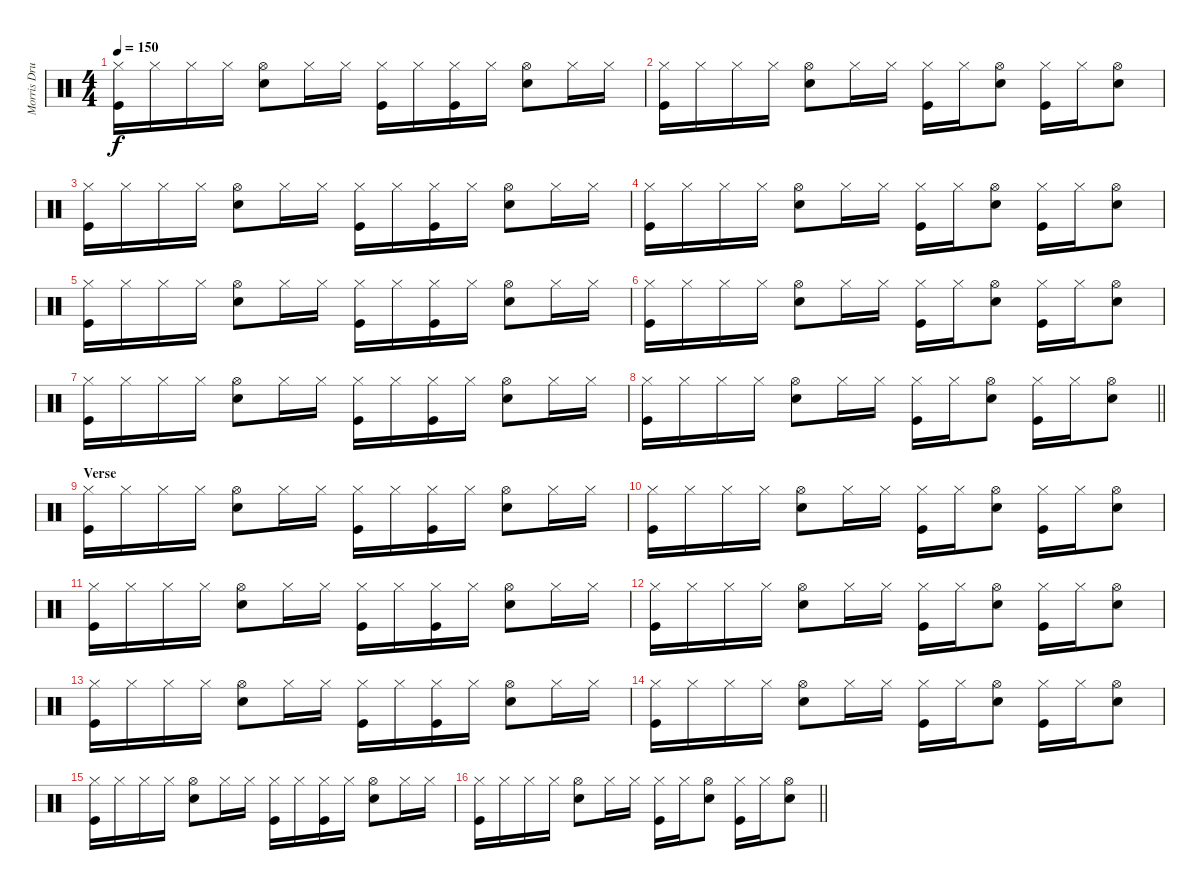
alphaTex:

\track ("Morris Drums" "Morris Dru") {instrument percussion}
\staff {score}
\articulation defaults
\ts (4 4)
\tempo 150
\clef neutral
\ks c
("Hi-Hat (closed)" "Kick (hit)").16{dy f} "Hi-Hat (closed)".16 "Hi-Hat (closed)".16 "Hi-Hat (closed)".16 ("Hi-Hat (open)" "Snare (hit) 2").8 "Hi-Hat (closed)".16 "Hi-Hat (closed)".16 ("Hi-Hat (closed)" "Kick (hit)").16 "Hi-Hat (closed)".16 ("Hi-Hat (closed)" "Kick (hit)").16 "Hi-Hat (closed)".16 ("Hi-Hat (open)" "Snare (hit) 2").8 "Hi-Hat (closed)".16 "Hi-Hat (closed)".16 |
("Hi-Hat (closed)" "Kick (hit)").16 "Hi-Hat (closed)".16 "Hi-Hat (closed)".16 "Hi-Hat (closed)".16 ("Hi-Hat (open)" "Snare (hit) 2").8 "Hi-Hat (closed)".16 "Hi-Hat (closed)".16 ("Hi-Hat (closed)" "Kick (hit)").16 "Hi-Hat (closed)".16 ("Hi-Hat (open)" "Snare (hit) 2").8 ("Hi-Hat (closed)" "Kick (hit)").16 "Hi-Hat (closed)".16 ("Hi-Hat (open)" "Snare (hit) 2").8 |
("Hi-Hat (closed)" "Kick (hit)").16 "Hi-Hat (closed)".16 "Hi-Hat (closed)".16 "Hi-Hat (closed)".16 ("Hi-Hat (open)" "Snare (hit) 2").8 "Hi-Hat (closed)".16 "Hi-Hat (closed)".16 ("Hi-Hat (closed)" "Kick (hit)").16 "Hi-Hat (closed)".16 ("Hi-Hat (closed)" "Kick (hit)").16 "Hi-Hat (closed)".16 ("Hi-Hat (open)" "Snare (hit) 2").8 "Hi-Hat (closed)".16 "Hi-Hat (closed)".16 |
("Hi-Hat (closed)" "Kick (hit)").16 "Hi-Hat (closed)".16 "Hi-Hat (closed)".16 "Hi-Hat (closed)".16 ("Hi-Hat (open)" "Snare (hit) 2").8 "Hi-Hat (closed)".16 "Hi-Hat (closed)".16 ("Hi-Hat (closed)" "Kick (hit)").16 "Hi-Hat (closed)".16 ("Hi-Hat (open)" "Snare (hit) 2").8 ("Hi-Hat (closed)" "Kick (hit)").16 "Hi-Hat (closed)".16 ("Hi-Hat (open)" "Snare (hit) 2").8 |
("Hi-Hat (closed)" "Kick (hit)").16 "Hi-Hat (closed)".16 "Hi-Hat (closed)".16 "Hi-Hat (closed)".16 ("Hi-Hat (open)" "Snare (hit) 2").8 "Hi-Hat (closed)".16 "Hi-Hat (closed)".16 ("Hi-Hat (closed)" "Kick (hit)").16 "Hi-Hat (closed)".16 ("Hi-Hat (closed)" "Kick (hit)").16 "Hi-Hat (closed)".16 ("Hi-Hat (open)" "Snare (hit) 2").8 "Hi-Hat (closed)".16 "Hi-Hat (closed)".16 |
("Hi-Hat (closed)" "Kick (hit)").16 "Hi-Hat (closed)".16 "Hi-Hat (closed)".16 "Hi-Hat (closed)".16 ("Hi-Hat (open)" "Snare (hit) 2").8 "Hi-Hat (closed)".16 "Hi-Hat (closed)".16 ("Hi-Hat (closed)" "Kick (hit)").16 "Hi-Hat (closed)".16 ("Hi-Hat (open)" "Snare (hit) 2").8 ("Hi-Hat (closed)" "Kick (hit)").16 "Hi-Hat (closed)".16 ("Hi-Hat (open)" "Snare (hit) 2").8 |
("Hi-Hat (closed)" "Kick (hit)").16 "Hi-Hat (closed)".16 "Hi-Hat (closed)".16 "Hi-Hat (closed)".16 ("Hi-Hat (open)" "Snare (hit) 2").8 "Hi-Hat (closed)".16 "Hi-Hat (closed)".16 ("Hi-Hat (closed)" "Kick (hit)").16 "Hi-Hat (closed)".16 ("Hi-Hat (closed)" "Kick (hit)").16 "Hi-Hat (closed)".16 ("Hi-Hat (open)" "Snare (hit) 2").8 "Hi-Hat (closed)".16 "Hi-Hat (closed)".16 |
\barLineRight lightlight
("Hi-Hat (closed)" "Kick (hit)").16 "Hi-Hat (closed)".16 "Hi-Hat (closed)".16 "Hi-Hat (closed)".16 ("Hi-Hat (open)" "Snare (hit) 2").8 "Hi-Hat (closed)".16 "Hi-Hat (closed)".16 ("Hi-Hat (closed)" "Kick (hit)").16 "Hi-Hat (closed)".16 ("Hi-Hat (open)" "Snare (hit) 2").8 ("Hi-Hat (closed)" "Kick (hit)").16 "Hi-Hat (closed)".16 ("Hi-Hat (open)" "Snare (hit) 2").8 |
\section ("" "Verse")
("Hi-Hat (closed)" "Kick (hit)").16 "Hi-Hat (closed)".16 "Hi-Hat (closed)".16 "Hi-Hat (closed)".16 ("Hi-Hat (open)" "Snare (hit) 2").8 "Hi-Hat (closed)".16 "Hi-Hat (closed)".16 ("Hi-Hat (closed)" "Kick (hit)").16 "Hi-Hat (closed)".16 ("Hi-Hat (closed)" "Kick (hit)").16 "Hi-Hat (closed)".16 ("Hi-Hat (open)" "Snare (hit) 2").8 "Hi-Hat (closed)".16 "Hi-Hat (closed)".16 |
("Hi-Hat (closed)" "Kick (hit)").16 "Hi-Hat (closed)".16 "Hi-Hat (closed)".16 "Hi-Hat (closed)".16 ("Hi-Hat (open)" "Snare (hit) 2").8 "Hi-Hat (closed)".16 "Hi-Hat (closed)".16 ("Hi-Hat (closed)" "Kick (hit)").16 "Hi-Hat (closed)".16 ("Hi-Hat (open)" "Snare (hit) 2").8 ("Hi-Hat (closed)" "Kick (hit)").16 "Hi-Hat (closed)".16 ("Hi-Hat (open)" "Snare (hit) 2").8 |
("Hi-Hat (closed)" "Kick (hit)").16 "Hi-Hat (closed)".16 "Hi-Hat (closed)".16 "Hi-Hat (closed)".16 ("Hi-Hat (open)" "Snare (hit) 2").8 "Hi-Hat (closed)".16 "Hi-Hat (closed)".16 ("Hi-Hat (closed)" "Kick (hit)").16 "Hi-Hat (closed)".16 ("Hi-Hat (closed)" "Kick (hit)").16 "Hi-Hat (closed)".16 ("Hi-Hat (open)" "Snare (hit) 2").8 "Hi-Hat (closed)".16 "Hi-Hat (closed)".16 |
("Hi-Hat (closed)" "Kick (hit)").16 "Hi-Hat (closed)".16 "Hi-Hat (closed)".16 "Hi-Hat (closed)".16 ("Hi-Hat (open)" "Snare (hit) 2").8 "Hi-Hat (closed)".16 "Hi-Hat (closed)".16 ("Hi-Hat (closed)" "Kick (hit)").16 "Hi-Hat (closed)".16 ("Hi-Hat (open)" "Snare (hit) 2").8 ("Hi-Hat (closed)" "Kick (hit)").16 "Hi-Hat (closed)".16 ("Hi-Hat (open)" "Snare (hit) 2").8 |
("Hi-Hat (closed)" "Kick (hit)").16 "Hi-Hat (closed)".16 "Hi-Hat (closed)".16 "Hi-Hat (closed)".16 ("Hi-Hat (open)" "Snare (hit) 2").8 "Hi-Hat (closed)".16 "Hi-Hat (closed)".16 ("Hi-Hat (closed)" "Kick (hit)").16 "Hi-Hat (closed)".16 ("Hi-Hat (closed)" "Kick (hit)").16 "Hi-Hat (closed)".16 ("Hi-Hat (open)" "Snare (hit) 2").8 "Hi-Hat (closed)".16 "Hi-Hat (closed)".16 |
("Hi-Hat (closed)" "Kick (hit)").16 "Hi-Hat (closed)".16 "Hi-Hat (closed)".16 "Hi-Hat (closed)".16 ("Hi-Hat (open)" "Snare (hit) 2").8 "Hi-Hat (closed)".16 "Hi-Hat (closed)".16 ("Hi-Hat (closed)" "Kick (hit)").16 "Hi-Hat (closed)".16 ("Hi-Hat (open)" "Snare (hit) 2").8 ("Hi-Hat (closed)" "Kick (hit)").16 "Hi-Hat (closed)".16 ("Hi-Hat (open)" "Snare (hit) 2").8 |
("Hi-Hat (closed)" "Kick (hit)").16 "Hi-Hat (closed)".16 "Hi-Hat (closed)".16 "Hi-Hat (closed)".16 ("Hi-Hat (open)" "Snare (hit) 2").8 "Hi-Hat (closed)".16 "Hi-Hat (closed)".16 ("Hi-Hat (closed)" "Kick (hit)").16 "Hi-Hat (closed)".16 ("Hi-Hat (closed)" "Kick (hit)").16 "Hi-Hat (closed)".16 ("Hi-Hat (open)" "Snare (hit) 2").8 "Hi-Hat (closed)".16 "Hi-Hat (closed)".16 |
\barLineRight lightlight
("Hi-Hat (closed)" "Kick (hit)").16 "Hi-Hat (closed)".16 "Hi-Hat (closed)".16 "Hi-Hat (closed)".16 ("Hi-Hat (open)" "Snare (hit) 2").8 "Hi-Hat (closed)".16 "Hi-Hat (closed)".16 ("Hi-Hat (closed)" "Kick (hit)").16 "Hi-Hat (closed)".16 ("Hi-Hat (open)" "Snare (hit) 2").8 ("Hi-Hat (closed)" "Kick (hit)").16 "Hi-Hat (closed)".16 ("Hi-Hat (open)" "Snare (hit) 2").8
